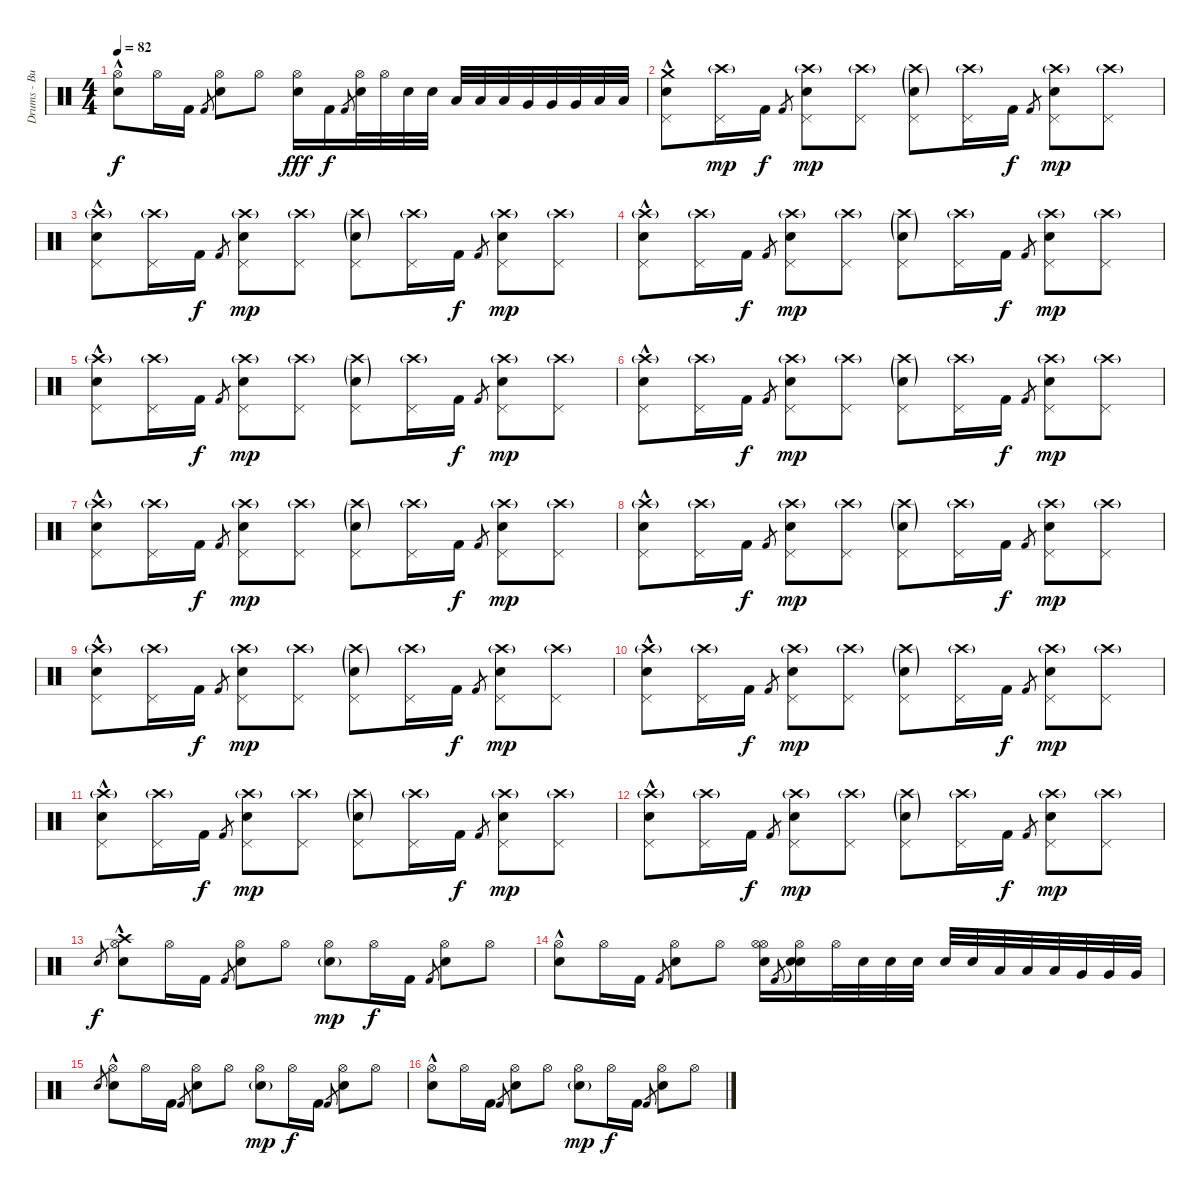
\track ("Drums - Buddy" "Drums - Bu") {instrument percussion}
\staff {score}
\articulation defaults
\ts (4 4)
\tempo 82
\clef neutral
\ks c
("Electric Snare (hit)" "Hi-Hat (open)"{hac}).8{dy f} "Hi-Hat (open)".16 "Kick (hit) 2".16 "Kick (hit) 2".8{gr} ("Electric Snare (hit)" "Hi-Hat (open)").8 "Hi-Hat (open)".8 ("Electric Snare (hit)" "Hi-Hat (open)").16{dy fff} "Kick (hit) 2".16{dy f} "Kick (hit) 2".8{gr} ("Electric Snare (hit)" "Hi-Hat (open)").32 "Hi-Hat (open)".32 "Electric Snare (hit)".32 "Electric Snare (hit)".32 "Low Floor Tom (hit)".32 "Low Floor Tom (hit)".32 "Low Floor Tom (hit)".32 "Very Low Tom (hit)".32 "Very Low Tom (hit)".32 "Very Low Tom (hit)".32 "Low Tom (hit)".32 "Low Tom (hit)".32 |
("Crash medium (hit)" "Electric Snare (hit)" "Pedal Hi-Hat (hit)"{hac}).8 ("Crash high (hit)"{g} "Pedal Hi-Hat (hit)").16{dy mp} "Kick (hit) 2".16{dy f} "Kick (hit) 2".8{gr} ("Crash high (hit)"{g} "Electric Snare (hit)" "Pedal Hi-Hat (hit)").8{dy mp} ("Crash high (hit)"{g} "Pedal Hi-Hat (hit)").8 ("Crash high (hit)"{g} "Electric Snare (hit)"{g} "Pedal Hi-Hat (hit)").8 ("Crash high (hit)"{g} "Pedal Hi-Hat (hit)").16 "Kick (hit) 2".16{dy f} "Kick (hit) 2".8{gr} ("Crash high (hit)"{g} "Electric Snare (hit)" "Pedal Hi-Hat (hit)").8{dy mp} ("Crash high (hit)"{g} "Pedal Hi-Hat (hit)").8 |
("Crash high (hit)"{g} "Electric Snare (hit)" "Pedal Hi-Hat (hit)"{hac}).8 ("Crash high (hit)"{g} "Pedal Hi-Hat (hit)").16 "Kick (hit) 2".16{dy f} "Kick (hit) 2".8{gr} ("Crash high (hit)"{g} "Electric Snare (hit)" "Pedal Hi-Hat (hit)").8{dy mp} ("Crash high (hit)"{g} "Pedal Hi-Hat (hit)").8 ("Crash high (hit)"{g} "Electric Snare (hit)"{g} "Pedal Hi-Hat (hit)").8 ("Crash high (hit)"{g} "Pedal Hi-Hat (hit)").16 "Kick (hit) 2".16{dy f} "Kick (hit) 2".8{gr} ("Crash high (hit)"{g} "Electric Snare (hit)" "Pedal Hi-Hat (hit)").8{dy mp} ("Crash high (hit)"{g} "Pedal Hi-Hat (hit)").8 |
("Crash high (hit)"{g} "Electric Snare (hit)" "Pedal Hi-Hat (hit)"{hac}).8 ("Crash high (hit)"{g} "Pedal Hi-Hat (hit)").16 "Kick (hit) 2".16{dy f} "Kick (hit) 2".8{gr} ("Crash high (hit)"{g} "Electric Snare (hit)" "Pedal Hi-Hat (hit)").8{dy mp} ("Crash high (hit)"{g} "Pedal Hi-Hat (hit)").8 ("Crash high (hit)"{g} "Electric Snare (hit)"{g} "Pedal Hi-Hat (hit)").8 ("Crash high (hit)"{g} "Pedal Hi-Hat (hit)").16 "Kick (hit) 2".16{dy f} "Kick (hit) 2".8{gr} ("Crash high (hit)"{g} "Electric Snare (hit)" "Pedal Hi-Hat (hit)").8{dy mp} ("Crash high (hit)"{g} "Pedal Hi-Hat (hit)").8 |
("Crash high (hit)"{g} "Electric Snare (hit)" "Pedal Hi-Hat (hit)"{hac}).8 ("Crash high (hit)"{g} "Pedal Hi-Hat (hit)").16 "Kick (hit) 2".16{dy f} "Kick (hit) 2".8{gr} ("Crash high (hit)"{g} "Electric Snare (hit)" "Pedal Hi-Hat (hit)").8{dy mp} ("Crash high (hit)"{g} "Pedal Hi-Hat (hit)").8 ("Crash high (hit)"{g} "Electric Snare (hit)"{g} "Pedal Hi-Hat (hit)").8 ("Crash high (hit)"{g} "Pedal Hi-Hat (hit)").16 "Kick (hit) 2".16{dy f} "Kick (hit) 2".8{gr} ("Crash high (hit)"{g} "Electric Snare (hit)" "Pedal Hi-Hat (hit)").8{dy mp} ("Crash high (hit)"{g} "Pedal Hi-Hat (hit)").8 |
("Crash high (hit)"{g} "Electric Snare (hit)" "Pedal Hi-Hat (hit)"{hac}).8 ("Crash high (hit)"{g} "Pedal Hi-Hat (hit)").16 "Kick (hit) 2".16{dy f} "Kick (hit) 2".8{gr} ("Crash high (hit)"{g} "Electric Snare (hit)" "Pedal Hi-Hat (hit)").8{dy mp} ("Crash high (hit)"{g} "Pedal Hi-Hat (hit)").8 ("Crash high (hit)"{g} "Electric Snare (hit)"{g} "Pedal Hi-Hat (hit)").8 ("Crash high (hit)"{g} "Pedal Hi-Hat (hit)").16 "Kick (hit) 2".16{dy f} "Kick (hit) 2".8{gr} ("Crash high (hit)"{g} "Electric Snare (hit)" "Pedal Hi-Hat (hit)").8{dy mp} ("Crash high (hit)"{g} "Pedal Hi-Hat (hit)").8 |
("Crash high (hit)"{g} "Electric Snare (hit)" "Pedal Hi-Hat (hit)"{hac}).8 ("Crash high (hit)"{g} "Pedal Hi-Hat (hit)").16 "Kick (hit) 2".16{dy f} "Kick (hit) 2".8{gr} ("Crash high (hit)"{g} "Electric Snare (hit)" "Pedal Hi-Hat (hit)").8{dy mp} ("Crash high (hit)"{g} "Pedal Hi-Hat (hit)").8 ("Crash high (hit)"{g} "Electric Snare (hit)"{g} "Pedal Hi-Hat (hit)").8 ("Crash high (hit)"{g} "Pedal Hi-Hat (hit)").16 "Kick (hit) 2".16{dy f} "Kick (hit) 2".8{gr} ("Crash high (hit)"{g} "Electric Snare (hit)" "Pedal Hi-Hat (hit)").8{dy mp} ("Crash high (hit)"{g} "Pedal Hi-Hat (hit)").8 |
("Crash high (hit)"{g} "Electric Snare (hit)" "Pedal Hi-Hat (hit)"{hac}).8 ("Crash high (hit)"{g} "Pedal Hi-Hat (hit)").16 "Kick (hit) 2".16{dy f} "Kick (hit) 2".8{gr} ("Crash high (hit)"{g} "Electric Snare (hit)" "Pedal Hi-Hat (hit)").8{dy mp} ("Crash high (hit)"{g} "Pedal Hi-Hat (hit)").8 ("Crash high (hit)"{g} "Electric Snare (hit)"{g} "Pedal Hi-Hat (hit)").8 ("Crash high (hit)"{g} "Pedal Hi-Hat (hit)").16 "Kick (hit) 2".16{dy f} "Kick (hit) 2".8{gr} ("Crash high (hit)"{g} "Electric Snare (hit)" "Pedal Hi-Hat (hit)").8{dy mp} ("Crash high (hit)"{g} "Pedal Hi-Hat (hit)").8 |
("Crash high (hit)"{g} "Electric Snare (hit)" "Pedal Hi-Hat (hit)"{hac}).8 ("Crash high (hit)"{g} "Pedal Hi-Hat (hit)").16 "Kick (hit) 2".16{dy f} "Kick (hit) 2".8{gr} ("Crash high (hit)"{g} "Electric Snare (hit)" "Pedal Hi-Hat (hit)").8{dy mp} ("Crash high (hit)"{g} "Pedal Hi-Hat (hit)").8 ("Crash high (hit)"{g} "Electric Snare (hit)"{g} "Pedal Hi-Hat (hit)").8 ("Crash high (hit)"{g} "Pedal Hi-Hat (hit)").16 "Kick (hit) 2".16{dy f} "Kick (hit) 2".8{gr} ("Crash high (hit)"{g} "Electric Snare (hit)" "Pedal Hi-Hat (hit)").8{dy mp} ("Crash high (hit)"{g} "Pedal Hi-Hat (hit)").8 |
("Crash high (hit)"{g} "Electric Snare (hit)" "Pedal Hi-Hat (hit)"{hac}).8 ("Crash high (hit)"{g} "Pedal Hi-Hat (hit)").16 "Kick (hit) 2".16{dy f} "Kick (hit) 2".8{gr} ("Crash high (hit)"{g} "Electric Snare (hit)" "Pedal Hi-Hat (hit)").8{dy mp} ("Crash high (hit)"{g} "Pedal Hi-Hat (hit)").8 ("Crash high (hit)"{g} "Electric Snare (hit)"{g} "Pedal Hi-Hat (hit)").8 ("Crash high (hit)"{g} "Pedal Hi-Hat (hit)").16 "Kick (hit) 2".16{dy f} "Kick (hit) 2".8{gr} ("Crash high (hit)"{g} "Electric Snare (hit)" "Pedal Hi-Hat (hit)").8{dy mp} ("Crash high (hit)"{g} "Pedal Hi-Hat (hit)").8 |
("Crash high (hit)"{g} "Electric Snare (hit)" "Pedal Hi-Hat (hit)"{hac}).8 ("Crash high (hit)"{g} "Pedal Hi-Hat (hit)").16 "Kick (hit) 2".16{dy f} "Kick (hit) 2".8{gr} ("Crash high (hit)"{g} "Electric Snare (hit)" "Pedal Hi-Hat (hit)").8{dy mp} ("Crash high (hit)"{g} "Pedal Hi-Hat (hit)").8 ("Crash high (hit)"{g} "Electric Snare (hit)"{g} "Pedal Hi-Hat (hit)").8 ("Crash high (hit)"{g} "Pedal Hi-Hat (hit)").16 "Kick (hit) 2".16{dy f} "Kick (hit) 2".8{gr} ("Crash high (hit)"{g} "Electric Snare (hit)" "Pedal Hi-Hat (hit)").8{dy mp} ("Crash high (hit)"{g} "Pedal Hi-Hat (hit)").8 |
("Crash high (hit)"{g} "Electric Snare (hit)" "Pedal Hi-Hat (hit)"{hac}).8 ("Crash high (hit)"{g} "Pedal Hi-Hat (hit)").16 "Kick (hit) 2".16{dy f} "Kick (hit) 2".8{gr} ("Crash high (hit)"{g} "Electric Snare (hit)" "Pedal Hi-Hat (hit)").8{dy mp} ("Crash high (hit)"{g} "Pedal Hi-Hat (hit)").8 ("Crash high (hit)"{g} "Electric Snare (hit)"{g} "Pedal Hi-Hat (hit)").8 ("Crash high (hit)"{g} "Pedal Hi-Hat (hit)").16 "Kick (hit) 2".16{dy f} "Kick (hit) 2".8{gr} ("Crash high (hit)"{g} "Electric Snare (hit)" "Pedal Hi-Hat (hit)").8{dy mp} ("Crash high (hit)"{g} "Pedal Hi-Hat (hit)").8 |
"Electric Snare (hit)".8{gr dy f} ("Crash high (hit)" "Electric Snare (hit)" "Hi-Hat (open)"{hac}).8 "Hi-Hat (open)".16 "Kick (hit) 2".16 "Kick (hit) 2".8{gr} ("Electric Snare (hit)" "Hi-Hat (open)").8 "Hi-Hat (open)".8 ("Electric Snare (hit)"{g} "Hi-Hat (open)").8{dy mp} "Hi-Hat (open)".16{dy f} "Kick (hit) 2".16 "Kick (hit) 2".8{gr} ("Electric Snare (hit)" "Hi-Hat (open)").8 "Hi-Hat (open)".8 |
("Electric Snare (hit)" "Hi-Hat (open)"{hac}).8 "Hi-Hat (open)".16 "Kick (hit) 2".16 "Kick (hit) 2".8{gr} ("Electric Snare (hit)" "Hi-Hat (open)").8 "Hi-Hat (open)".8 ("Hi-Hat (open)" "Electric Snare (hit)" "Hi-Hat (open)").16 "Kick (hit) 2".8{gr} ("Snare (hit)"{t} "Electric Snare (hit)" "Hi-Hat (open)").16 "Hi-Hat (open)".32 "Electric Snare (hit)".32 "Electric Snare (hit)".32 "Electric Snare (hit)".32 "Electric Snare (hit)".32 "Electric Snare (hit)".32 "Low Floor Tom (hit)".32 "Low Floor Tom (hit)".32 "Low Floor Tom (hit)".32 "Very Low Tom (hit)".32 "Very Low Tom (hit)".32 "Very Low Tom (hit)".32 |
"Electric Snare (hit)".8{gr} ("Electric Snare (hit)" "Hi-Hat (open)"{hac}).8 "Hi-Hat (open)".16 "Kick (hit) 2".16 "Kick (hit) 2".8{gr} ("Electric Snare (hit)" "Hi-Hat (open)").8 "Hi-Hat (open)".8 ("Electric Snare (hit)"{g} "Hi-Hat (open)").8{dy mp} "Hi-Hat (open)".16{dy f} "Kick (hit) 2".16 "Kick (hit) 2".8{gr} ("Electric Snare (hit)" "Hi-Hat (open)").8 "Hi-Hat (open)".8 |
("Electric Snare (hit)" "Hi-Hat (open)"{hac}).8 "Hi-Hat (open)".16 "Kick (hit) 2".16 "Kick (hit) 2".8{gr} ("Electric Snare (hit)" "Hi-Hat (open)").8 "Hi-Hat (open)".8 ("Electric Snare (hit)"{g} "Hi-Hat (open)").8{dy mp} "Hi-Hat (open)".16{dy f} "Kick (hit) 2".16 "Kick (hit) 2".8{gr} ("Electric Snare (hit)" "Hi-Hat (open)").8 "Hi-Hat (open)".8
